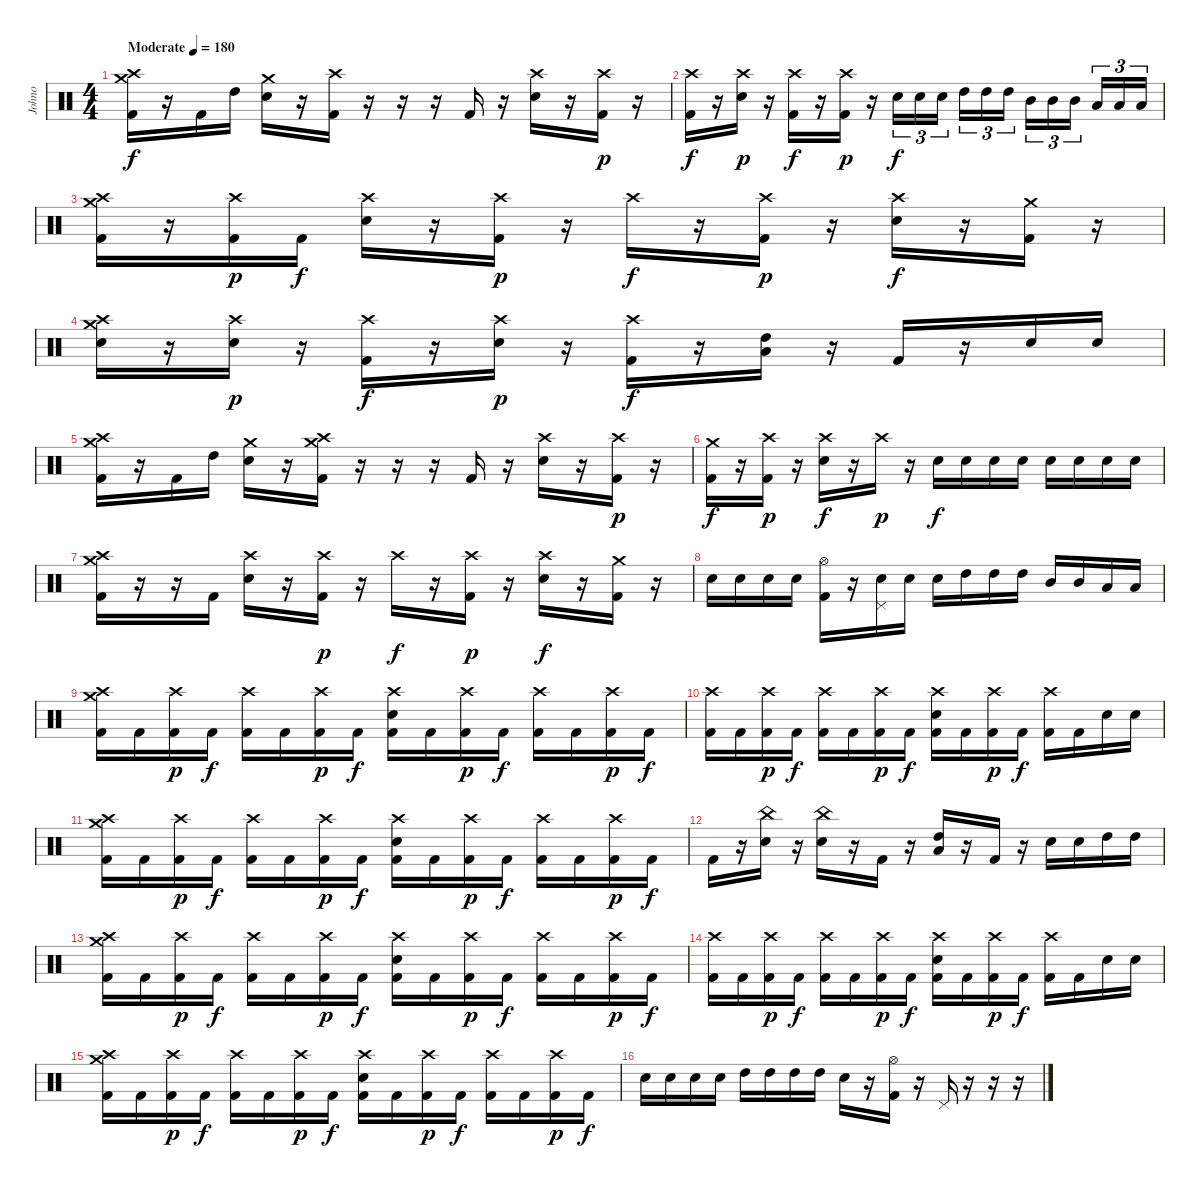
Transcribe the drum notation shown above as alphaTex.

\track (" Johno" " Johno") {instrument percussion}
\staff {score}
\articulation defaults
\ts (4 4)
\tempo (180 "Moderate")
\clef neutral
\ks c
("Crash medium (hit)" "Crash high (hit)" "Kick (hit) 2").16{dy f} r.16 "Kick (hit) 2".16 "High Tom (hit)".16 ("Crash medium (hit)" "Electric Snare (hit)").16 r.16 ("Crash high (hit)" "Kick (hit) 2").16 r.16 r.16 r.16 "Kick (hit) 2".16 r.16 ("Crash high (hit)" "Electric Snare (hit)").16 r.16 ("Crash high (hit)" "Kick (hit) 2").16{dy p} r.16 |
("Crash high (hit)" "Kick (hit) 2").16{dy f} r.16 ("Crash high (hit)" "Electric Snare (hit)").16{dy p} r.16 ("Crash high (hit)" "Kick (hit) 2").16{dy f} r.16 ("Crash high (hit)" "Kick (hit) 2").16{dy p} r.16 "Electric Snare (hit)".16{tu (3 2) dy f} "Electric Snare (hit)".16{tu (3 2)} "Electric Snare (hit)".16{tu (3 2) beam splitsecondary} "High Tom (hit)".16{tu (3 2)} "High Tom (hit)".16{tu (3 2)} "High Tom (hit)".16{tu (3 2)} "Mid Tom (hit)".16{tu (3 2)} "Mid Tom (hit)".16{tu (3 2)} "Mid Tom (hit)".16{tu (3 2) beam splitsecondary} "Low Floor Tom (hit)".16{tu (3 2)} "Low Floor Tom (hit)".16{tu (3 2)} "Low Floor Tom (hit)".16{tu (3 2)} |
("Crash high (hit)" "Crash medium (hit)" "Kick (hit) 2").16 r.16 ("Crash high (hit)" "Kick (hit) 2").16{dy p} "Kick (hit) 2".16{dy f} ("Crash high (hit)" "Electric Snare (hit)").16 r.16 ("Crash high (hit)" "Kick (hit) 2").16{dy p} r.16 "Crash high (hit)".16{dy f} r.16 ("Crash high (hit)" "Kick (hit) 2").16{dy p} r.16 ("Crash high (hit)" "Electric Snare (hit)").16{dy f} r.16 ("Crash medium (hit)" "Kick (hit) 2").16 r.16 |
("Crash medium (hit)" "Crash high (hit)" "Electric Snare (hit)").16 r.16 ("Crash high (hit)" "Electric Snare (hit)").16{dy p} r.16 ("Crash high (hit)" "Kick (hit) 2").16{dy f} r.16 ("Crash high (hit)" "Electric Snare (hit)").16{dy p} r.16 ("Crash high (hit)" "Kick (hit) 2").16{dy f} r.16 ("High Tom (hit)" "Low Floor Tom (hit)").16 r.16 "Kick (hit) 2".16 r.16 "Electric Snare (hit)".16 "Electric Snare (hit)".16 |
("Crash medium (hit)" "Crash high (hit)" "Kick (hit) 2").16 r.16 "Kick (hit) 2".16 "High Tom (hit)".16 ("Crash medium (hit)" "Electric Snare (hit)").16 r.16 ("Crash high (hit)" "Crash medium (hit)" "Kick (hit) 2").16 r.16 r.16 r.16 "Kick (hit) 2".16 r.16 ("Crash high (hit)" "Electric Snare (hit)").16 r.16 ("Crash high (hit)" "Kick (hit) 2").16{dy p} r.16 |
("Crash medium (hit)" "Kick (hit) 2").16{dy f} r.16 ("Crash high (hit)" "Kick (hit) 2").16{dy p} r.16 ("Crash high (hit)" "Electric Snare (hit)").16{dy f} r.16 "Crash high (hit)".16{dy p} r.16 "Electric Snare (hit)".16{dy f} "Electric Snare (hit)".16 "Electric Snare (hit)".16 "Electric Snare (hit)".16 "Electric Snare (hit)".16 "Electric Snare (hit)".16 "Electric Snare (hit)".16 "Electric Snare (hit)".16 |
("Crash high (hit)" "Crash medium (hit)" "Kick (hit) 2").16 r.16 r.16 "Kick (hit) 2".16 ("Crash high (hit)" "Electric Snare (hit)").16 r.16 ("Crash high (hit)" "Kick (hit) 2").16{dy p} r.16 "Crash high (hit)".16{dy f} r.16 ("Crash high (hit)" "Kick (hit) 2").16{dy p} r.16 ("Crash high (hit)" "Electric Snare (hit)").16{dy f} r.16 ("Crash medium (hit)" "Kick (hit) 2").16 r.16 |
"Electric Snare (hit)".16 "Electric Snare (hit)".16 "Electric Snare (hit)".16 "Electric Snare (hit)".16 ("Hi-Hat (open)" "Kick (hit) 2").16 r.16 ("Electric Snare (hit)" "Pedal Hi-Hat (hit)").16 "Electric Snare (hit)".16 "Electric Snare (hit)".16 "High Tom (hit)".16 "High Tom (hit)".16 "High Tom (hit)".16 "Mid Tom (hit)".16 "Mid Tom (hit)".16 "Low Floor Tom (hit)".16 "Low Floor Tom (hit)".16 |
("Crash medium (hit)" "Crash high (hit)" "Kick (hit) 2").16 "Kick (hit) 2".16 ("Crash high (hit)" "Kick (hit) 2").16{dy p} "Kick (hit) 2".16{dy f} ("Crash high (hit)" "Kick (hit) 2").16 "Kick (hit) 2".16 ("Crash high (hit)" "Kick (hit) 2").16{dy p} "Kick (hit) 2".16{dy f} ("Crash high (hit)" "Electric Snare (hit)" "Kick (hit) 2").16 "Kick (hit) 2".16 ("Crash high (hit)" "Kick (hit) 2").16{dy p} "Kick (hit) 2".16{dy f} ("Crash high (hit)" "Kick (hit) 2").16 "Kick (hit) 2".16 ("Crash high (hit)" "Kick (hit) 2").16{dy p} "Kick (hit) 2".16{dy f} |
("Crash high (hit)" "Kick (hit) 2").16 "Kick (hit) 2".16 ("Crash high (hit)" "Kick (hit) 2").16{dy p} "Kick (hit) 2".16{dy f} ("Crash high (hit)" "Kick (hit) 2").16 "Kick (hit) 2".16 ("Crash high (hit)" "Kick (hit) 2").16{dy p} "Kick (hit) 2".16{dy f} ("Crash high (hit)" "Electric Snare (hit)" "Kick (hit) 2").16 "Kick (hit) 2".16 ("Crash high (hit)" "Kick (hit) 2").16{dy p} "Kick (hit) 2".16{dy f} ("Crash high (hit)" "Kick (hit) 2").16 "Kick (hit) 2".16 "Electric Snare (hit)".16 "Electric Snare (hit)".16 |
("Crash medium (hit)" "Crash high (hit)" "Kick (hit) 2").16 "Kick (hit) 2".16 ("Crash high (hit)" "Kick (hit) 2").16{dy p} "Kick (hit) 2".16{dy f} ("Crash high (hit)" "Kick (hit) 2").16 "Kick (hit) 2".16 ("Crash high (hit)" "Kick (hit) 2").16{dy p} "Kick (hit) 2".16{dy f} ("Crash high (hit)" "Electric Snare (hit)" "Kick (hit) 2").16 "Kick (hit) 2".16 ("Crash high (hit)" "Kick (hit) 2").16{dy p} "Kick (hit) 2".16{dy f} ("Crash high (hit)" "Kick (hit) 2").16 "Kick (hit) 2".16 ("Crash high (hit)" "Kick (hit) 2").16{dy p} "Kick (hit) 2".16{dy f} |
"Kick (hit) 2".16 r.16 ("China (hit)" "Electric Snare (hit)").16 r.16 ("China (hit)" "Electric Snare (hit)").16 r.16 "Kick (hit) 2".16 r.16 ("Low Floor Tom (hit)" "High Tom (hit)").16 r.16 "Kick (hit) 2".16 r.16 "Electric Snare (hit)".16 "Electric Snare (hit)".16 "High Tom (hit)".16 "High Tom (hit)".16 |
("Crash medium (hit)" "Crash high (hit)" "Kick (hit) 2").16 "Kick (hit) 2".16 ("Crash high (hit)" "Kick (hit) 2").16{dy p} "Kick (hit) 2".16{dy f} ("Crash high (hit)" "Kick (hit) 2").16 "Kick (hit) 2".16 ("Crash high (hit)" "Kick (hit) 2").16{dy p} "Kick (hit) 2".16{dy f} ("Crash high (hit)" "Electric Snare (hit)" "Kick (hit) 2").16 "Kick (hit) 2".16 ("Crash high (hit)" "Kick (hit) 2").16{dy p} "Kick (hit) 2".16{dy f} ("Crash high (hit)" "Kick (hit) 2").16 "Kick (hit) 2".16 ("Crash high (hit)" "Kick (hit) 2").16{dy p} "Kick (hit) 2".16{dy f} |
("Crash high (hit)" "Kick (hit) 2").16 "Kick (hit) 2".16 ("Crash high (hit)" "Kick (hit) 2").16{dy p} "Kick (hit) 2".16{dy f} ("Crash high (hit)" "Kick (hit) 2").16 "Kick (hit) 2".16 ("Crash high (hit)" "Kick (hit) 2").16{dy p} "Kick (hit) 2".16{dy f} ("Crash high (hit)" "Electric Snare (hit)" "Kick (hit) 2").16 "Kick (hit) 2".16 ("Crash high (hit)" "Kick (hit) 2").16{dy p} "Kick (hit) 2".16{dy f} ("Crash high (hit)" "Kick (hit) 2").16 "Kick (hit) 2".16 "Electric Snare (hit)".16 "Electric Snare (hit)".16 |
("Crash medium (hit)" "Crash high (hit)" "Kick (hit) 2").16 "Kick (hit) 2".16 ("Crash high (hit)" "Kick (hit) 2").16{dy p} "Kick (hit) 2".16{dy f} ("Crash high (hit)" "Kick (hit) 2").16 "Kick (hit) 2".16 ("Crash high (hit)" "Kick (hit) 2").16{dy p} "Kick (hit) 2".16{dy f} ("Crash high (hit)" "Electric Snare (hit)" "Kick (hit) 2").16 "Kick (hit) 2".16 ("Crash high (hit)" "Kick (hit) 2").16{dy p} "Kick (hit) 2".16{dy f} ("Crash high (hit)" "Kick (hit) 2").16 "Kick (hit) 2".16 ("Crash high (hit)" "Kick (hit) 2").16{dy p} "Kick (hit) 2".16{dy f} |
"Electric Snare (hit)".16 "Electric Snare (hit)".16 "Electric Snare (hit)".16 "Electric Snare (hit)".16 "High Tom (hit)".16 "High Tom (hit)".16 "High Tom (hit)".16 "High Tom (hit)".16 "Electric Snare (hit)".16 r.16 ("Hi-Hat (open)" "Kick (hit) 2").16 r.16 "Pedal Hi-Hat (hit)".16 r.16 r.16 r.16
